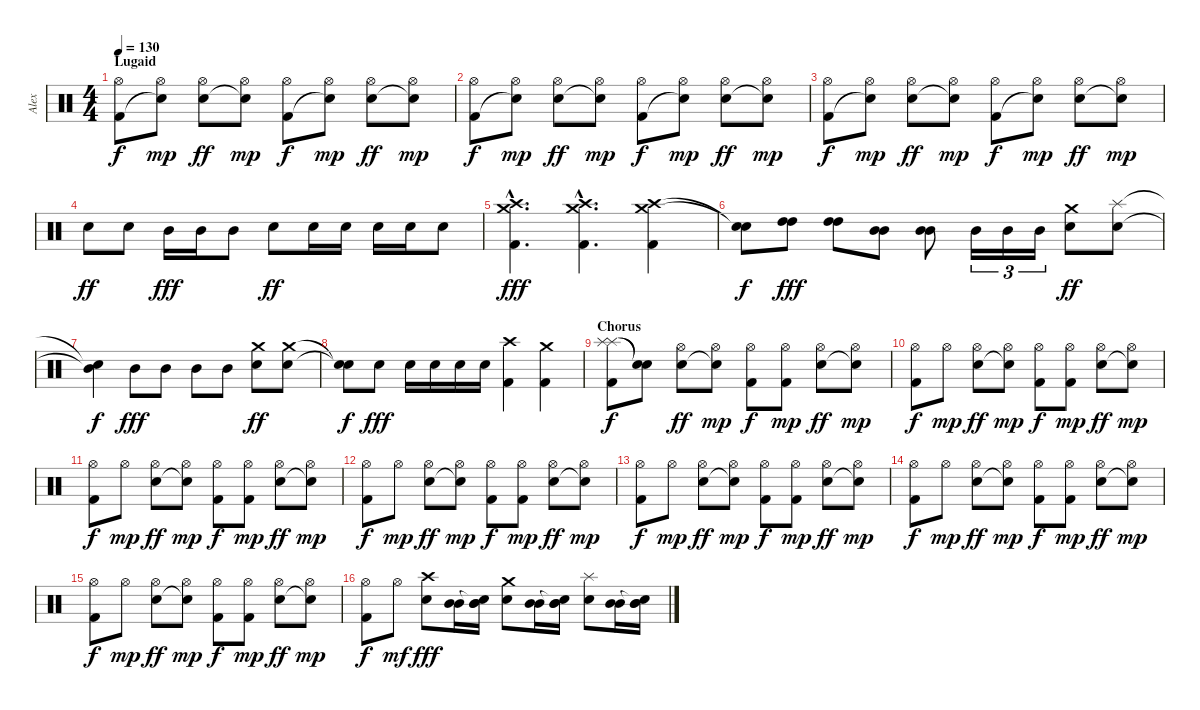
\track ("Alex" "Alex") {instrument percussion}
\staff {score}
\articulation defaults
\ts (4 4)
\section ("" "Lugaid")
\tempo 130
\clef neutral
\ks c
("Hi-Hat (open)" "Kick (hit) 2").8{dy f} ("Hi-Hat (open)" "Snare (hit)"{t}).8{dy mp} ("Hi-Hat (open)" "Electric Snare (hit)").8{dy ff} ("Hi-Hat (open)" "Snare (hit)"{t}).8{dy mp} ("Hi-Hat (open)" "Kick (hit) 2").8{dy f} ("Hi-Hat (open)" "Snare (hit)"{t}).8{dy mp} ("Hi-Hat (open)" "Electric Snare (hit)").8{dy ff} ("Hi-Hat (open)" "Snare (hit)"{t}).8{dy mp} |
("Hi-Hat (open)" "Kick (hit) 2").8{dy f} ("Hi-Hat (open)" "Snare (hit)"{t}).8{dy mp} ("Hi-Hat (open)" "Electric Snare (hit)").8{dy ff} ("Hi-Hat (open)" "Snare (hit)"{t}).8{dy mp} ("Hi-Hat (open)" "Kick (hit) 2").8{dy f} ("Hi-Hat (open)" "Snare (hit)"{t}).8{dy mp} ("Hi-Hat (open)" "Electric Snare (hit)").8{dy ff} ("Hi-Hat (open)" "Snare (hit)"{t}).8{dy mp} |
("Hi-Hat (open)" "Kick (hit) 2").8{dy f} ("Hi-Hat (open)" "Snare (hit)"{t}).8{dy mp} ("Hi-Hat (open)" "Electric Snare (hit)").8{dy ff} ("Hi-Hat (open)" "Snare (hit)"{t}).8{dy mp} ("Hi-Hat (open)" "Kick (hit) 2").8{dy f} ("Hi-Hat (open)" "Snare (hit)"{t}).8{dy mp} ("Hi-Hat (open)" "Electric Snare (hit)").8{dy ff} ("Hi-Hat (open)" "Snare (hit)"{t}).8{dy mp} |
"Electric Snare (hit)".8{dy ff} "Electric Snare (hit)".8 "Mid Tom (hit)".16{dy fff} "Mid Tom (hit)".16 "Mid Tom (hit)".8 "Electric Snare (hit)".8{dy ff} "Electric Snare (hit)".16 "Electric Snare (hit)".16 "Electric Snare (hit)".16 "Electric Snare (hit)".16 "Electric Snare (hit)".8 |
("Crash medium (hit)"{hac} "Crash high (hit)"{hac} "Kick (hit) 2"{hac}).4{d dy fff} ("Crash medium (hit)"{hac} "Crash high (hit)"{hac} "Kick (hit) 2"{hac}).4{d} ("Crash medium (hit)" "Crash high (hit)" "Kick (hit) 2").4 |
("Snare (hit)"{t} "Snare (hit)"{t}).8{dy f} ("High Tom (hit)" "High Tom (hit)").8{dy fff} ("High Tom (hit)" "High Tom (hit)").8 ("Mid Tom (hit)" "Mid Tom (hit)").8 ("Mid Tom (hit)" "Mid Tom (hit)").8 "Mid Tom (hit)".16{tu (3 2)} "Mid Tom (hit)".16{tu (3 2)} "Mid Tom (hit)".16{tu (3 2)} ("Crash medium (hit)" "Electric Snare (hit)").8{dy ff} ("Splash (hit)" "Electric Snare (hit)").8 |
("Snare (hit)"{t} "Mid Tom (hit)"{t}).4{dy f} "Mid Tom (hit)".8{dy fff} "Mid Tom (hit)".8 "Mid Tom (hit)".8 "Mid Tom (hit)".8 ("Crash medium (hit)" "Electric Snare (hit)").8{dy ff} ("Crash medium (hit)" "Electric Snare (hit)").8 |
("Snare (hit)"{t} "Snare (hit)"{t}).8{dy f} "Electric Snare (hit)".8{dy fff} "Electric Snare (hit)".16 "Electric Snare (hit)".16 "Electric Snare (hit)".16 "Electric Snare (hit)".16 ("Crash high (hit)" "Kick (hit) 2").4 ("Crash medium (hit)" "Kick (hit) 2").4 |
\section ("" "Chorus")
("Splash (hit)" "Splash (hit)" "Kick (hit) 2").8{dy f} ("Snare (hit)"{t} "Snare (hit)"{t}).8 ("Hi-Hat (open)" "Electric Snare (hit)").8{dy ff} ("Hi-Hat (open)" "Snare (hit)"{t}).8{dy mp} ("Hi-Hat (open)" "Kick (hit) 2").8{dy f} ("Hi-Hat (open)" "Kick (hit) 2").8{dy mp} ("Hi-Hat (open)" "Electric Snare (hit)").8{dy ff} ("Hi-Hat (open)" "Snare (hit)"{t}).8{dy mp} |
("Hi-Hat (open)" "Kick (hit) 2").8{dy f} "Hi-Hat (open)".8{dy mp} ("Hi-Hat (open)" "Electric Snare (hit)").8{dy ff} ("Hi-Hat (open)" "Snare (hit)"{t}).8{dy mp} ("Hi-Hat (open)" "Kick (hit) 2").8{dy f} ("Hi-Hat (open)" "Kick (hit) 2").8{dy mp} ("Hi-Hat (open)" "Electric Snare (hit)").8{dy ff} ("Hi-Hat (open)" "Snare (hit)"{t}).8{dy mp} |
("Hi-Hat (open)" "Kick (hit) 2").8{dy f} "Hi-Hat (open)".8{dy mp} ("Hi-Hat (open)" "Electric Snare (hit)").8{dy ff} ("Hi-Hat (open)" "Snare (hit)"{t}).8{dy mp} ("Hi-Hat (open)" "Kick (hit) 2").8{dy f} ("Hi-Hat (open)" "Kick (hit) 2").8{dy mp} ("Hi-Hat (open)" "Electric Snare (hit)").8{dy ff} ("Hi-Hat (open)" "Snare (hit)"{t}).8{dy mp} |
("Hi-Hat (open)" "Kick (hit) 2").8{dy f} "Hi-Hat (open)".8{dy mp} ("Hi-Hat (open)" "Electric Snare (hit)").8{dy ff} ("Hi-Hat (open)" "Snare (hit)"{t}).8{dy mp} ("Hi-Hat (open)" "Kick (hit) 2").8{dy f} ("Hi-Hat (open)" "Kick (hit) 2").8{dy mp} ("Hi-Hat (open)" "Electric Snare (hit)").8{dy ff} ("Hi-Hat (open)" "Snare (hit)"{t}).8{dy mp} |
("Hi-Hat (open)" "Kick (hit) 2").8{dy f} "Hi-Hat (open)".8{dy mp} ("Hi-Hat (open)" "Electric Snare (hit)").8{dy ff} ("Hi-Hat (open)" "Snare (hit)"{t}).8{dy mp} ("Hi-Hat (open)" "Kick (hit) 2").8{dy f} ("Hi-Hat (open)" "Kick (hit) 2").8{dy mp} ("Hi-Hat (open)" "Electric Snare (hit)").8{dy ff} ("Hi-Hat (open)" "Snare (hit)"{t}).8{dy mp} |
("Hi-Hat (open)" "Kick (hit) 2").8{dy f} "Hi-Hat (open)".8{dy mp} ("Hi-Hat (open)" "Electric Snare (hit)").8{dy ff} ("Hi-Hat (open)" "Snare (hit)"{t}).8{dy mp} ("Hi-Hat (open)" "Kick (hit) 2").8{dy f} ("Hi-Hat (open)" "Kick (hit) 2").8{dy mp} ("Hi-Hat (open)" "Electric Snare (hit)").8{dy ff} ("Hi-Hat (open)" "Snare (hit)"{t}).8{dy mp} |
("Hi-Hat (open)" "Kick (hit) 2").8{dy f} "Hi-Hat (open)".8{dy mp} ("Hi-Hat (open)" "Electric Snare (hit)").8{dy ff} ("Hi-Hat (open)" "Snare (hit)"{t}).8{dy mp} ("Hi-Hat (open)" "Kick (hit) 2").8{dy f} ("Hi-Hat (open)" "Kick (hit) 2").8{dy mp} ("Hi-Hat (open)" "Electric Snare (hit)").8{dy ff} ("Hi-Hat (open)" "Snare (hit)"{t}).8{dy mp} |
("Hi-Hat (open)" "Kick (hit) 2").8{dy f} "Hi-Hat (open)".8{dy mf} ("Crash high (hit)" "Electric Snare (hit)").8{dy fff} ("Mid Tom (hit)" "Mid Tom (hit)").16 ("Snare (hit)"{t} "Mid Tom (hit)" "Mid Tom (hit)").16 ("Crash medium (hit)" "Electric Snare (hit)").8 ("Mid Tom (hit)" "Mid Tom (hit)").16 ("Snare (hit)"{t} "Mid Tom (hit)" "Mid Tom (hit)").16 ("Splash (hit)" "Electric Snare (hit)").8 ("Mid Tom (hit)" "Mid Tom (hit)").16 ("Snare (hit)"{t} "Mid Tom (hit)" "Mid Tom (hit)").16
